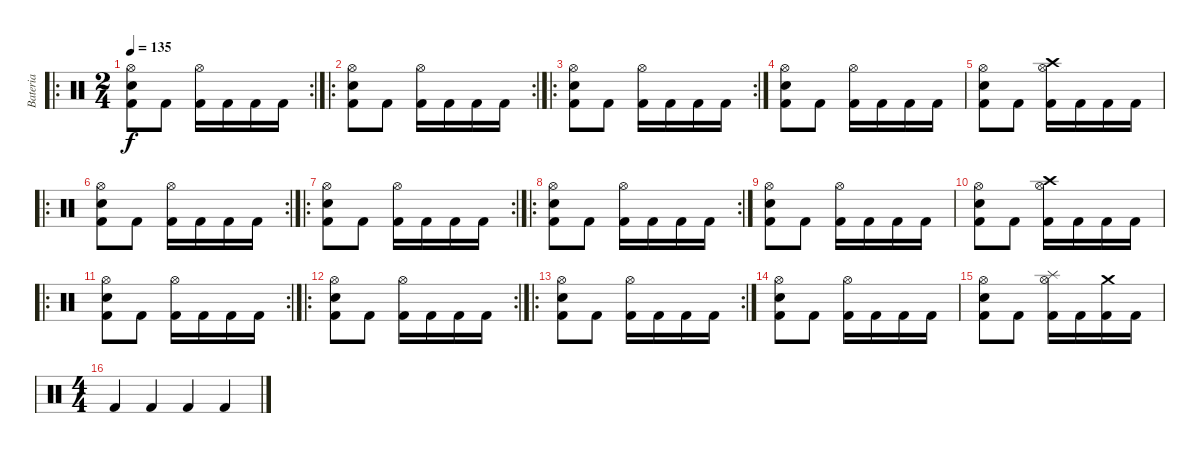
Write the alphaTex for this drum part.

\track ("Bateria" "Bateria") {instrument percussion}
\staff {score}
\articulation defaults
\ro
\rc 2
\ts (2 4)
\tempo 135
\clef neutral
\ks c
("Hi-Hat (open)" "Snare (hit) 2" "Kick (hit) 2").8{dy f} "Kick (hit) 2".8 ("Hi-Hat (open)" "Kick (hit) 2").16 "Kick (hit) 2".16 "Kick (hit) 2".16 "Kick (hit) 2".16 |
\ro
\rc 2
("Hi-Hat (open)" "Snare (hit) 2" "Kick (hit) 2").8 "Kick (hit) 2".8 ("Hi-Hat (open)" "Kick (hit) 2").16 "Kick (hit) 2".16 "Kick (hit) 2".16 "Kick (hit) 2".16 |
\ro
\rc 2
("Hi-Hat (open)" "Snare (hit) 2" "Kick (hit) 2").8 "Kick (hit) 2".8 ("Hi-Hat (open)" "Kick (hit) 2").16 "Kick (hit) 2".16 "Kick (hit) 2".16 "Kick (hit) 2".16 |
("Hi-Hat (open)" "Snare (hit) 2" "Kick (hit) 2").8 "Kick (hit) 2".8 ("Hi-Hat (open)" "Kick (hit) 2").16 "Kick (hit) 2".16 "Kick (hit) 2".16 "Kick (hit) 2".16 |
("Hi-Hat (open)" "Snare (hit) 2" "Kick (hit) 2").8 "Kick (hit) 2".8 ("Hi-Hat (open)" "Crash high (hit)" "Kick (hit) 2").16 "Kick (hit) 2".16 "Kick (hit) 2".16 "Kick (hit) 2".16 |
\ro
\rc 2
("Hi-Hat (open)" "Snare (hit) 2" "Kick (hit) 2").8 "Kick (hit) 2".8 ("Hi-Hat (open)" "Kick (hit) 2").16 "Kick (hit) 2".16 "Kick (hit) 2".16 "Kick (hit) 2".16 |
\ro
\rc 2
("Hi-Hat (open)" "Snare (hit) 2" "Kick (hit) 2").8 "Kick (hit) 2".8 ("Hi-Hat (open)" "Kick (hit) 2").16 "Kick (hit) 2".16 "Kick (hit) 2".16 "Kick (hit) 2".16 |
\ro
\rc 2
("Hi-Hat (open)" "Snare (hit) 2" "Kick (hit) 2").8 "Kick (hit) 2".8 ("Hi-Hat (open)" "Kick (hit) 2").16 "Kick (hit) 2".16 "Kick (hit) 2".16 "Kick (hit) 2".16 |
("Hi-Hat (open)" "Snare (hit) 2" "Kick (hit) 2").8 "Kick (hit) 2".8 ("Hi-Hat (open)" "Kick (hit) 2").16 "Kick (hit) 2".16 "Kick (hit) 2".16 "Kick (hit) 2".16 |
("Hi-Hat (open)" "Snare (hit) 2" "Kick (hit) 2").8 "Kick (hit) 2".8 ("Hi-Hat (open)" "Crash high (hit)" "Kick (hit) 2").16 "Kick (hit) 2".16 "Kick (hit) 2".16 "Kick (hit) 2".16 |
\ro
\rc 2
("Hi-Hat (open)" "Snare (hit) 2" "Kick (hit) 2").8 "Kick (hit) 2".8 ("Hi-Hat (open)" "Kick (hit) 2").16 "Kick (hit) 2".16 "Kick (hit) 2".16 "Kick (hit) 2".16 |
\ro
\rc 2
("Hi-Hat (open)" "Snare (hit) 2" "Kick (hit) 2").8 "Kick (hit) 2".8 ("Hi-Hat (open)" "Kick (hit) 2").16 "Kick (hit) 2".16 "Kick (hit) 2".16 "Kick (hit) 2".16 |
\ro
\rc 2
("Hi-Hat (open)" "Snare (hit) 2" "Kick (hit) 2").8 "Kick (hit) 2".8 ("Hi-Hat (open)" "Kick (hit) 2").16 "Kick (hit) 2".16 "Kick (hit) 2".16 "Kick (hit) 2".16 |
("Hi-Hat (open)" "Snare (hit) 2" "Kick (hit) 2").8 "Kick (hit) 2".8 ("Hi-Hat (open)" "Kick (hit) 2").16 "Kick (hit) 2".16 "Kick (hit) 2".16 "Kick (hit) 2".16 |
("Hi-Hat (open)" "Snare (hit) 2" "Kick (hit) 2").8 "Kick (hit) 2".8 ("Hi-Hat (open)" "Splash (hit)" "Kick (hit) 2").16 "Kick (hit) 2".16 ("Crash medium (hit)" "Kick (hit) 2").16 "Kick (hit) 2".16 |
\ts (4 4)
"Kick (hit) 2".4 "Kick (hit) 2".4 "Kick (hit) 2".4 "Kick (hit) 2".4
